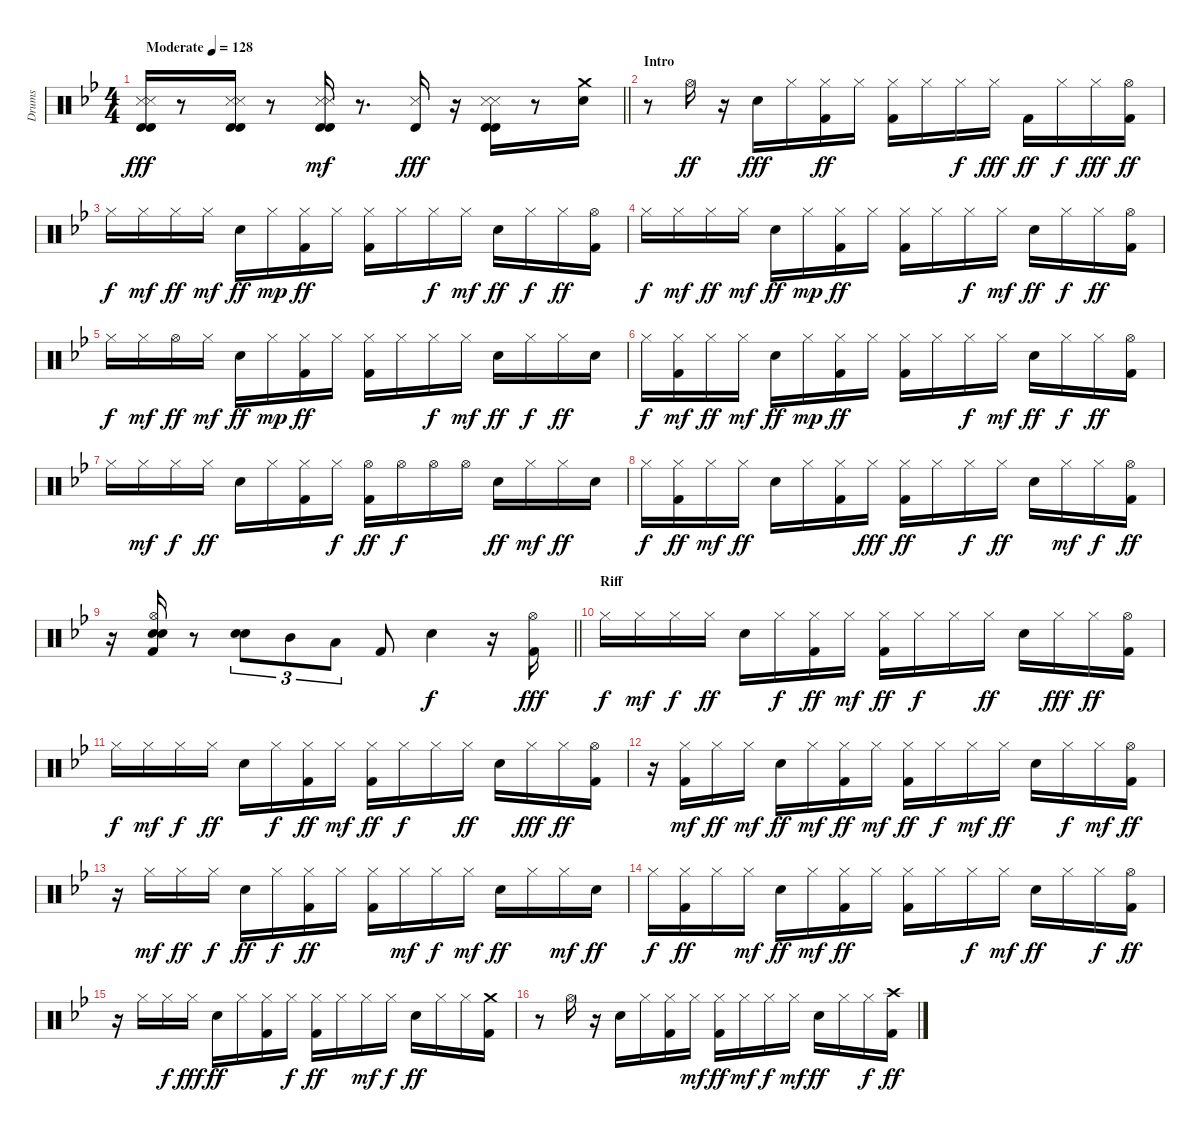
\track ("Drums" "Drums") {instrument percussion}
\staff {score}
\articulation defaults
\ts (4 4)
\tempo (128 "Moderate")
\clef neutral
\barLineRight lightlight
\ks gminor
("Timbale high (hit)" "Snare (side stick) 3" "Timbale high (hit)" "Snare (side stick) 3").16{dy fff} r.8 ("Timbale high (hit)" "Snare (side stick) 3" "Timbale high (hit)" "Snare (side stick) 3").16 r.8 ("Timbale high (hit)" "Snare (side stick) 3" "Timbale high (hit)" "Snare (side stick) 3").16{dy mf} r.8{d} ("Timbale high (hit)" "Snare (side stick) 3").16{dy fff} r.16 ("Timbale high (hit)" "Snare (side stick) 3" "Timbale high (hit)" "Snare (side stick) 3").16 r.8 ("Crash medium (hit)" "Snare (hit) 2").16 |
\section ("" "Intro")
r.8 "Hi-Hat (open)".16{dy ff} r.16 "Snare (hit) 2".16{dy fff} "Hi-Hat (closed)".16 ("Hi-Hat (closed)" "Kick (hit) 2").16{dy ff} "Hi-Hat (closed)".16 ("Hi-Hat (closed)" "Kick (hit) 2").16 "Hi-Hat (closed)".16 "Hi-Hat (closed)".16{dy f} "Hi-Hat (closed)".16{dy fff} "Kick (hit) 2".16{dy ff} "Hi-Hat (closed)".16{dy f} "Hi-Hat (closed)".16{dy fff} ("Hi-Hat (open)" "Kick (hit) 2").16{dy ff} |
"Hi-Hat (closed)".16{dy f} "Hi-Hat (closed)".16{dy mf} "Hi-Hat (closed)".16{dy ff} "Hi-Hat (closed)".16{dy mf} "Snare (hit) 2".16{dy ff} "Hi-Hat (closed)".16{dy mp} ("Hi-Hat (closed)" "Kick (hit) 2").16{dy ff} "Hi-Hat (closed)".16 ("Hi-Hat (closed)" "Kick (hit) 2").16 "Hi-Hat (closed)".16 "Hi-Hat (closed)".16{dy f} "Hi-Hat (closed)".16{dy mf} "Snare (hit) 2".16{dy ff} "Hi-Hat (closed)".16{dy f} "Hi-Hat (closed)".16{dy ff} ("Hi-Hat (open)" "Kick (hit) 2").16 |
"Hi-Hat (closed)".16{dy f} "Hi-Hat (closed)".16{dy mf} "Hi-Hat (closed)".16{dy ff} "Hi-Hat (closed)".16{dy mf} "Snare (hit) 2".16{dy ff} "Hi-Hat (closed)".16{dy mp} ("Hi-Hat (closed)" "Kick (hit) 2").16{dy ff} "Hi-Hat (closed)".16 ("Hi-Hat (closed)" "Kick (hit) 2").16 "Hi-Hat (closed)".16 "Hi-Hat (closed)".16{dy f} "Hi-Hat (closed)".16{dy mf} "Snare (hit) 2".16{dy ff} "Hi-Hat (closed)".16{dy f} "Hi-Hat (closed)".16{dy ff} ("Hi-Hat (open)" "Kick (hit) 2").16 |
"Hi-Hat (closed)".16{dy f} "Hi-Hat (closed)".16{dy mf} "Hi-Hat (open)".16{dy ff} "Hi-Hat (closed)".16{dy mf} "Snare (hit) 2".16{dy ff} "Hi-Hat (closed)".16{dy mp} ("Hi-Hat (closed)" "Kick (hit) 2").16{dy ff} "Hi-Hat (closed)".16 ("Hi-Hat (closed)" "Kick (hit) 2").16 "Hi-Hat (closed)".16 "Hi-Hat (closed)".16{dy f} "Hi-Hat (closed)".16{dy mf} "Snare (hit) 2".16{dy ff} "Hi-Hat (closed)".16{dy f} "Hi-Hat (closed)".16{dy ff} "Snare (hit) 2".16 |
"Hi-Hat (closed)".16{dy f} ("Hi-Hat (closed)" "Kick (hit) 2").16{dy mf} "Hi-Hat (closed)".16{dy ff} "Hi-Hat (closed)".16{dy mf} "Snare (hit) 2".16{dy ff} "Hi-Hat (closed)".16{dy mp} ("Hi-Hat (closed)" "Kick (hit) 2").16{dy ff} "Hi-Hat (closed)".16 ("Hi-Hat (closed)" "Kick (hit) 2").16 "Hi-Hat (closed)".16 "Hi-Hat (closed)".16{dy f} "Hi-Hat (closed)".16{dy mf} "Snare (hit) 2".16{dy ff} "Hi-Hat (closed)".16{dy f} "Hi-Hat (closed)".16{dy ff} ("Hi-Hat (open)" "Kick (hit) 2").16 |
"Hi-Hat (closed)".16 "Hi-Hat (closed)".16{dy mf} "Hi-Hat (closed)".16{dy f} "Hi-Hat (closed)".16{dy ff} "Snare (hit) 2".16 "Hi-Hat (closed)".16 ("Hi-Hat (closed)" "Kick (hit) 2").16 "Hi-Hat (closed)".16{dy f} ("Hi-Hat (open)" "Kick (hit) 2").16{dy ff} "Hi-Hat (open)".16{dy f} "Hi-Hat (open)".16 "Hi-Hat (open)".16 "Snare (hit) 2".16{dy ff} "Hi-Hat (closed)".16{dy mf} "Hi-Hat (closed)".16{dy ff} "Snare (hit) 2".16 |
"Hi-Hat (closed)".16{dy f} ("Hi-Hat (closed)" "Kick (hit) 2").16{dy ff} "Hi-Hat (closed)".16{dy mf} "Hi-Hat (closed)".16{dy ff} "Snare (hit) 2".16 "Hi-Hat (closed)".16 ("Hi-Hat (closed)" "Kick (hit) 2").16 "Hi-Hat (closed)".16{dy fff} ("Hi-Hat (closed)" "Kick (hit) 2").16{dy ff} "Hi-Hat (closed)".16 "Hi-Hat (closed)".16{dy f} "Hi-Hat (closed)".16{dy ff} "Snare (hit) 2".16 "Hi-Hat (closed)".16{dy mf} "Hi-Hat (closed)".16{dy f} ("Kick (hit) 2" "Hi-Hat (open)").16{dy ff} |
\barLineRight lightlight
r.16 ("Hi-Hat (open)" "Snare (hit) 2" "Kick (hit) 2" "Snare (hit) 2").16 r.8 ("Snare (hit) 2" "Snare (hit) 2").8{tu (3 2)} "Mid Tom (hit)".8{tu (3 2)} "Low Tom (hit)".8{tu (3 2)} "Kick (hit) 2".8 "Snare (hit) 2".4{dy f} r.16 ("Kick (hit) 2" "Hi-Hat (open)").16{dy fff} |
\section ("" "Riff")
"Hi-Hat (closed)".16{dy f} "Hi-Hat (closed)".16{dy mf} "Hi-Hat (closed)".16{dy f} "Hi-Hat (closed)".16{dy ff} "Snare (hit) 2".16 "Hi-Hat (closed)".16{dy f} ("Hi-Hat (closed)" "Kick (hit) 2").16{dy ff} "Hi-Hat (closed)".16{dy mf} ("Hi-Hat (closed)" "Kick (hit) 2").16{dy ff} "Hi-Hat (closed)".16{dy f} "Hi-Hat (closed)".16 "Hi-Hat (closed)".16{dy ff} "Snare (hit) 2".16 "Hi-Hat (closed)".16{dy fff} "Hi-Hat (closed)".16{dy ff} ("Hi-Hat (open)" "Kick (hit) 2").16 |
"Hi-Hat (closed)".16{dy f} "Hi-Hat (closed)".16{dy mf} "Hi-Hat (closed)".16{dy f} "Hi-Hat (closed)".16{dy ff} "Snare (hit) 2".16 "Hi-Hat (closed)".16{dy f} ("Hi-Hat (closed)" "Kick (hit) 2").16{dy ff} "Hi-Hat (closed)".16{dy mf} ("Hi-Hat (closed)" "Kick (hit) 2").16{dy ff} "Hi-Hat (closed)".16{dy f} "Hi-Hat (closed)".16 "Hi-Hat (closed)".16{dy ff} "Snare (hit) 2".16 "Hi-Hat (closed)".16{dy fff} "Hi-Hat (closed)".16{dy ff} ("Hi-Hat (open)" "Kick (hit) 2").16 |
r.16 ("Kick (hit) 2" "Hi-Hat (closed)").16{dy mf} "Hi-Hat (closed)".16{dy ff} "Hi-Hat (closed)".16{dy mf} "Snare (hit) 2".16{dy ff} "Hi-Hat (closed)".16{dy mf} ("Kick (hit) 2" "Hi-Hat (closed)").16{dy ff} "Hi-Hat (closed)".16{dy mf} ("Kick (hit) 2" "Hi-Hat (closed)").16{dy ff} "Hi-Hat (closed)".16{dy f} "Hi-Hat (closed)".16{dy mf} "Hi-Hat (closed)".16{dy ff} "Snare (hit) 2".16 "Hi-Hat (closed)".16{dy f} "Hi-Hat (closed)".16{dy mf} ("Kick (hit) 2" "Hi-Hat (open)").16{dy ff} |
r.16 "Hi-Hat (closed)".16{dy mf} "Hi-Hat (closed)".16{dy ff} "Hi-Hat (closed)".16{dy f} "Snare (hit) 2".16{dy ff} "Hi-Hat (closed)".16{dy f} ("Hi-Hat (closed)" "Kick (hit) 2").16{dy ff} "Hi-Hat (closed)".16 ("Hi-Hat (closed)" "Kick (hit) 2").16 "Hi-Hat (closed)".16{dy mf} "Hi-Hat (closed)".16{dy f} "Hi-Hat (closed)".16{dy mf} "Snare (hit) 2".16{dy ff} "Hi-Hat (closed)".16 "Hi-Hat (closed)".16{dy mf} "Snare (hit) 2".16{dy ff} |
"Hi-Hat (closed)".16{dy f} ("Hi-Hat (closed)" "Kick (hit) 2").16{dy ff} "Hi-Hat (closed)".16 "Hi-Hat (closed)".16{dy mf} "Snare (hit) 2".16{dy ff} "Hi-Hat (closed)".16{dy mf} ("Hi-Hat (closed)" "Kick (hit) 2").16{dy ff} "Hi-Hat (closed)".16 ("Hi-Hat (closed)" "Kick (hit) 2").16 "Hi-Hat (closed)".16 "Hi-Hat (closed)".16{dy f} "Hi-Hat (closed)".16{dy mf} "Snare (hit) 2".16{dy ff} "Hi-Hat (closed)".16 "Hi-Hat (closed)".16{dy f} ("Hi-Hat (open)" "Kick (hit) 2").16{dy ff} |
r.16 "Hi-Hat (closed)".16 "Hi-Hat (closed)".16{dy f} "Hi-Hat (closed)".16{dy fff} "Snare (hit) 2".16{dy ff} "Hi-Hat (closed)".16 ("Hi-Hat (closed)" "Kick (hit) 2").16 "Hi-Hat (closed)".16{dy f} ("Hi-Hat (closed)" "Kick (hit) 2").16{dy ff} "Hi-Hat (closed)".16 "Hi-Hat (closed)".16{dy mf} "Hi-Hat (closed)".16{dy f} "Snare (hit) 2".16{dy ff} "Hi-Hat (closed)".16 "Hi-Hat (closed)".16 ("Kick (hit) 2" "Crash medium (hit)").16 |
r.8 "Hi-Hat (open)".16 r.16 "Snare (hit) 2".16 "Hi-Hat (closed)".16 ("Hi-Hat (closed)" "Kick (hit) 2").16 "Hi-Hat (closed)".16{dy mf} ("Hi-Hat (closed)" "Kick (hit) 2").16{dy ff} "Hi-Hat (closed)".16{dy mf} "Hi-Hat (closed)".16{dy f} "Hi-Hat (closed)".16{dy mf} "Snare (hit) 2".16{dy ff} "Hi-Hat (closed)".16 "Hi-Hat (closed)".16{dy f} ("Kick (hit) 2" "Crash high (hit)").16{dy ff}
